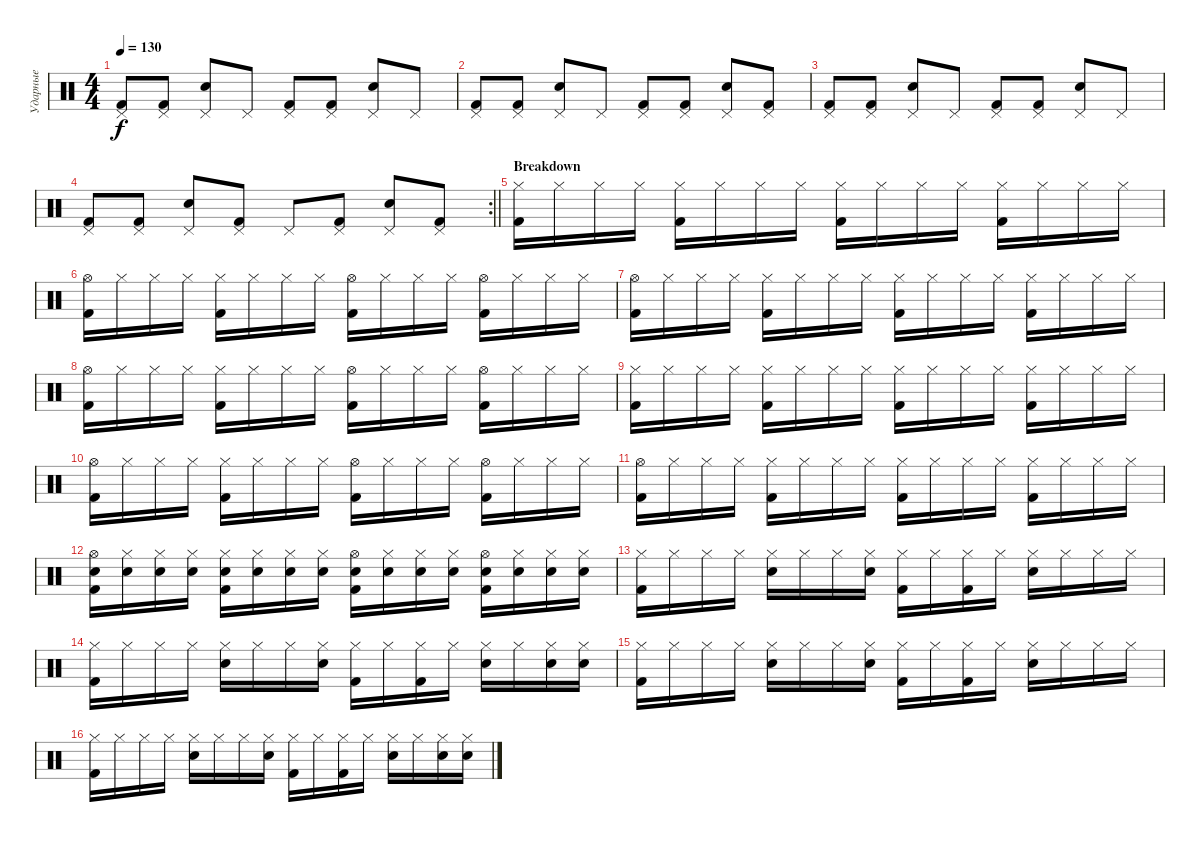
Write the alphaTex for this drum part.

\track ("Ударные" "Ударные") {instrument percussion}
\staff {score}
\articulation defaults
\ts (4 4)
\tempo 130
\clef neutral
\ks c
("Pedal Hi-Hat (hit)" "Kick (hit) 2").8{dy f} ("Pedal Hi-Hat (hit)" "Kick (hit) 2").8 ("Pedal Hi-Hat (hit)" "Electric Snare (hit)").8 "Pedal Hi-Hat (hit)".8 ("Pedal Hi-Hat (hit)" "Kick (hit) 2").8 ("Pedal Hi-Hat (hit)" "Kick (hit) 2").8 ("Pedal Hi-Hat (hit)" "Electric Snare (hit)").8 "Pedal Hi-Hat (hit)".8 |
("Pedal Hi-Hat (hit)" "Kick (hit) 2").8 ("Pedal Hi-Hat (hit)" "Kick (hit) 2").8 ("Pedal Hi-Hat (hit)" "Electric Snare (hit)").8 "Pedal Hi-Hat (hit)".8 ("Pedal Hi-Hat (hit)" "Kick (hit) 2").8 ("Pedal Hi-Hat (hit)" "Kick (hit) 2").8 ("Pedal Hi-Hat (hit)" "Electric Snare (hit)").8 ("Pedal Hi-Hat (hit)" "Kick (hit) 2").8 |
("Pedal Hi-Hat (hit)" "Kick (hit) 2").8 ("Pedal Hi-Hat (hit)" "Kick (hit) 2").8 ("Pedal Hi-Hat (hit)" "Electric Snare (hit)").8 "Pedal Hi-Hat (hit)".8 ("Pedal Hi-Hat (hit)" "Kick (hit) 2").8 ("Pedal Hi-Hat (hit)" "Kick (hit) 2").8 ("Pedal Hi-Hat (hit)" "Electric Snare (hit)").8 "Pedal Hi-Hat (hit)".8 |
\rc 2
\barLineRight lightlight
("Pedal Hi-Hat (hit)" "Kick (hit) 2").8 ("Pedal Hi-Hat (hit)" "Kick (hit) 2").8 ("Pedal Hi-Hat (hit)" "Electric Snare (hit)").8 ("Pedal Hi-Hat (hit)" "Kick (hit) 2").8 "Pedal Hi-Hat (hit)".8 ("Pedal Hi-Hat (hit)" "Kick (hit) 2").8 ("Pedal Hi-Hat (hit)" "Electric Snare (hit)").8 ("Pedal Hi-Hat (hit)" "Kick (hit) 2").8 |
\section ("" "Breakdown")
("Hi-Hat (closed)" "Kick (hit) 2").16 "Hi-Hat (closed)".16 "Hi-Hat (closed)".16 "Hi-Hat (closed)".16 ("Hi-Hat (closed)" "Kick (hit) 2").16 "Hi-Hat (closed)".16 "Hi-Hat (closed)".16 "Hi-Hat (closed)".16 ("Hi-Hat (closed)" "Kick (hit) 2").16 "Hi-Hat (closed)".16 "Hi-Hat (closed)".16 "Hi-Hat (closed)".16 ("Hi-Hat (closed)" "Kick (hit) 2").16 "Hi-Hat (closed)".16 "Hi-Hat (closed)".16 "Hi-Hat (closed)".16 |
("Hi-Hat (open)" "Kick (hit) 2").16 "Hi-Hat (closed)".16 "Hi-Hat (closed)".16 "Hi-Hat (closed)".16 ("Hi-Hat (closed)" "Kick (hit) 2").16 "Hi-Hat (closed)".16 "Hi-Hat (closed)".16 "Hi-Hat (closed)".16 ("Hi-Hat (open)" "Kick (hit) 2").16 "Hi-Hat (closed)".16 "Hi-Hat (closed)".16 "Hi-Hat (closed)".16 ("Hi-Hat (open)" "Kick (hit) 2").16 "Hi-Hat (closed)".16 "Hi-Hat (closed)".16 "Hi-Hat (closed)".16 |
("Hi-Hat (open)" "Kick (hit) 2").16 "Hi-Hat (closed)".16 "Hi-Hat (closed)".16 "Hi-Hat (closed)".16 ("Hi-Hat (closed)" "Kick (hit) 2").16 "Hi-Hat (closed)".16 "Hi-Hat (closed)".16 "Hi-Hat (closed)".16 ("Hi-Hat (closed)" "Kick (hit) 2").16 "Hi-Hat (closed)".16 "Hi-Hat (closed)".16 "Hi-Hat (closed)".16 ("Hi-Hat (closed)" "Kick (hit) 2").16 "Hi-Hat (closed)".16 "Hi-Hat (closed)".16 "Hi-Hat (closed)".16 |
("Hi-Hat (open)" "Kick (hit) 2").16 "Hi-Hat (closed)".16 "Hi-Hat (closed)".16 "Hi-Hat (closed)".16 ("Hi-Hat (closed)" "Kick (hit) 2").16 "Hi-Hat (closed)".16 "Hi-Hat (closed)".16 "Hi-Hat (closed)".16 ("Hi-Hat (open)" "Kick (hit) 2").16 "Hi-Hat (closed)".16 "Hi-Hat (closed)".16 "Hi-Hat (closed)".16 ("Hi-Hat (open)" "Kick (hit) 2").16 "Hi-Hat (closed)".16 "Hi-Hat (closed)".16 "Hi-Hat (closed)".16 |
("Hi-Hat (closed)" "Kick (hit) 2").16 "Hi-Hat (closed)".16 "Hi-Hat (closed)".16 "Hi-Hat (closed)".16 ("Hi-Hat (closed)" "Kick (hit) 2").16 "Hi-Hat (closed)".16 "Hi-Hat (closed)".16 "Hi-Hat (closed)".16 ("Hi-Hat (closed)" "Kick (hit) 2").16 "Hi-Hat (closed)".16 "Hi-Hat (closed)".16 "Hi-Hat (closed)".16 ("Hi-Hat (closed)" "Kick (hit) 2").16 "Hi-Hat (closed)".16 "Hi-Hat (closed)".16 "Hi-Hat (closed)".16 |
("Hi-Hat (open)" "Kick (hit) 2").16 "Hi-Hat (closed)".16 "Hi-Hat (closed)".16 "Hi-Hat (closed)".16 ("Hi-Hat (closed)" "Kick (hit) 2").16 "Hi-Hat (closed)".16 "Hi-Hat (closed)".16 "Hi-Hat (closed)".16 ("Hi-Hat (open)" "Kick (hit) 2").16 "Hi-Hat (closed)".16 "Hi-Hat (closed)".16 "Hi-Hat (closed)".16 ("Hi-Hat (open)" "Kick (hit) 2").16 "Hi-Hat (closed)".16 "Hi-Hat (closed)".16 "Hi-Hat (closed)".16 |
("Hi-Hat (open)" "Kick (hit) 2").16 "Hi-Hat (closed)".16 "Hi-Hat (closed)".16 "Hi-Hat (closed)".16 ("Hi-Hat (closed)" "Kick (hit) 2").16 "Hi-Hat (closed)".16 "Hi-Hat (closed)".16 "Hi-Hat (closed)".16 ("Hi-Hat (closed)" "Kick (hit) 2").16 "Hi-Hat (closed)".16 "Hi-Hat (closed)".16 "Hi-Hat (closed)".16 ("Hi-Hat (closed)" "Kick (hit) 2").16 "Hi-Hat (closed)".16 "Hi-Hat (closed)".16 "Hi-Hat (closed)".16 |
("Hi-Hat (open)" "Electric Snare (hit)" "Kick (hit) 2").16 ("Hi-Hat (closed)" "Electric Snare (hit)").16 ("Hi-Hat (closed)" "Electric Snare (hit)").16 ("Hi-Hat (closed)" "Electric Snare (hit)").16 ("Hi-Hat (closed)" "Electric Snare (hit)" "Kick (hit) 2").16 ("Hi-Hat (closed)" "Electric Snare (hit)").16 ("Hi-Hat (closed)" "Electric Snare (hit)").16 ("Hi-Hat (closed)" "Electric Snare (hit)").16 ("Hi-Hat (open)" "Electric Snare (hit)" "Kick (hit) 2").16 ("Hi-Hat (closed)" "Electric Snare (hit)").16 ("Hi-Hat (closed)" "Electric Snare (hit)").16 ("Hi-Hat (closed)" "Electric Snare (hit)").16 ("Hi-Hat (open)" "Electric Snare (hit)" "Kick (hit) 2").16 ("Hi-Hat (closed)" "Electric Snare (hit)").16 ("Hi-Hat (closed)" "Electric Snare (hit)").16 ("Hi-Hat (closed)" "Electric Snare (hit)").16 |
("Hi-Hat (closed)" "Kick (hit) 2").16 "Hi-Hat (closed)".16 "Hi-Hat (closed)".16 "Hi-Hat (closed)".16 ("Hi-Hat (closed)" "Electric Snare (hit)").16 "Hi-Hat (closed)".16 "Hi-Hat (closed)".16 ("Hi-Hat (closed)" "Electric Snare (hit)").16 ("Hi-Hat (closed)" "Kick (hit) 2").16 "Hi-Hat (closed)".16 ("Hi-Hat (closed)" "Kick (hit) 2").16 "Hi-Hat (closed)".16 ("Hi-Hat (closed)" "Electric Snare (hit)").16 "Hi-Hat (closed)".16 "Hi-Hat (closed)".16 "Hi-Hat (closed)".16 |
("Hi-Hat (closed)" "Kick (hit) 2").16 "Hi-Hat (closed)".16 "Hi-Hat (closed)".16 "Hi-Hat (closed)".16 ("Hi-Hat (closed)" "Electric Snare (hit)").16 "Hi-Hat (closed)".16 "Hi-Hat (closed)".16 ("Hi-Hat (closed)" "Electric Snare (hit)").16 ("Hi-Hat (closed)" "Kick (hit) 2").16 "Hi-Hat (closed)".16 ("Hi-Hat (closed)" "Kick (hit) 2").16 "Hi-Hat (closed)".16 ("Hi-Hat (closed)" "Electric Snare (hit)").16 "Hi-Hat (closed)".16 ("Hi-Hat (closed)" "Electric Snare (hit)").16 ("Hi-Hat (closed)" "Electric Snare (hit)").16 |
("Hi-Hat (closed)" "Kick (hit) 2").16 "Hi-Hat (closed)".16 "Hi-Hat (closed)".16 "Hi-Hat (closed)".16 ("Hi-Hat (closed)" "Electric Snare (hit)").16 "Hi-Hat (closed)".16 "Hi-Hat (closed)".16 ("Hi-Hat (closed)" "Electric Snare (hit)").16 ("Hi-Hat (closed)" "Kick (hit) 2").16 "Hi-Hat (closed)".16 ("Hi-Hat (closed)" "Kick (hit) 2").16 "Hi-Hat (closed)".16 ("Hi-Hat (closed)" "Electric Snare (hit)").16 "Hi-Hat (closed)".16 "Hi-Hat (closed)".16 "Hi-Hat (closed)".16 |
("Hi-Hat (closed)" "Kick (hit) 2").16 "Hi-Hat (closed)".16 "Hi-Hat (closed)".16 "Hi-Hat (closed)".16 ("Hi-Hat (closed)" "Electric Snare (hit)").16 "Hi-Hat (closed)".16 "Hi-Hat (closed)".16 ("Hi-Hat (closed)" "Electric Snare (hit)").16 ("Hi-Hat (closed)" "Kick (hit) 2").16 "Hi-Hat (closed)".16 ("Hi-Hat (closed)" "Kick (hit) 2").16 "Hi-Hat (closed)".16 ("Hi-Hat (closed)" "Electric Snare (hit)").16 "Hi-Hat (closed)".16 ("Hi-Hat (closed)" "Electric Snare (hit)").16 ("Hi-Hat (closed)" "Electric Snare (hit)").16
